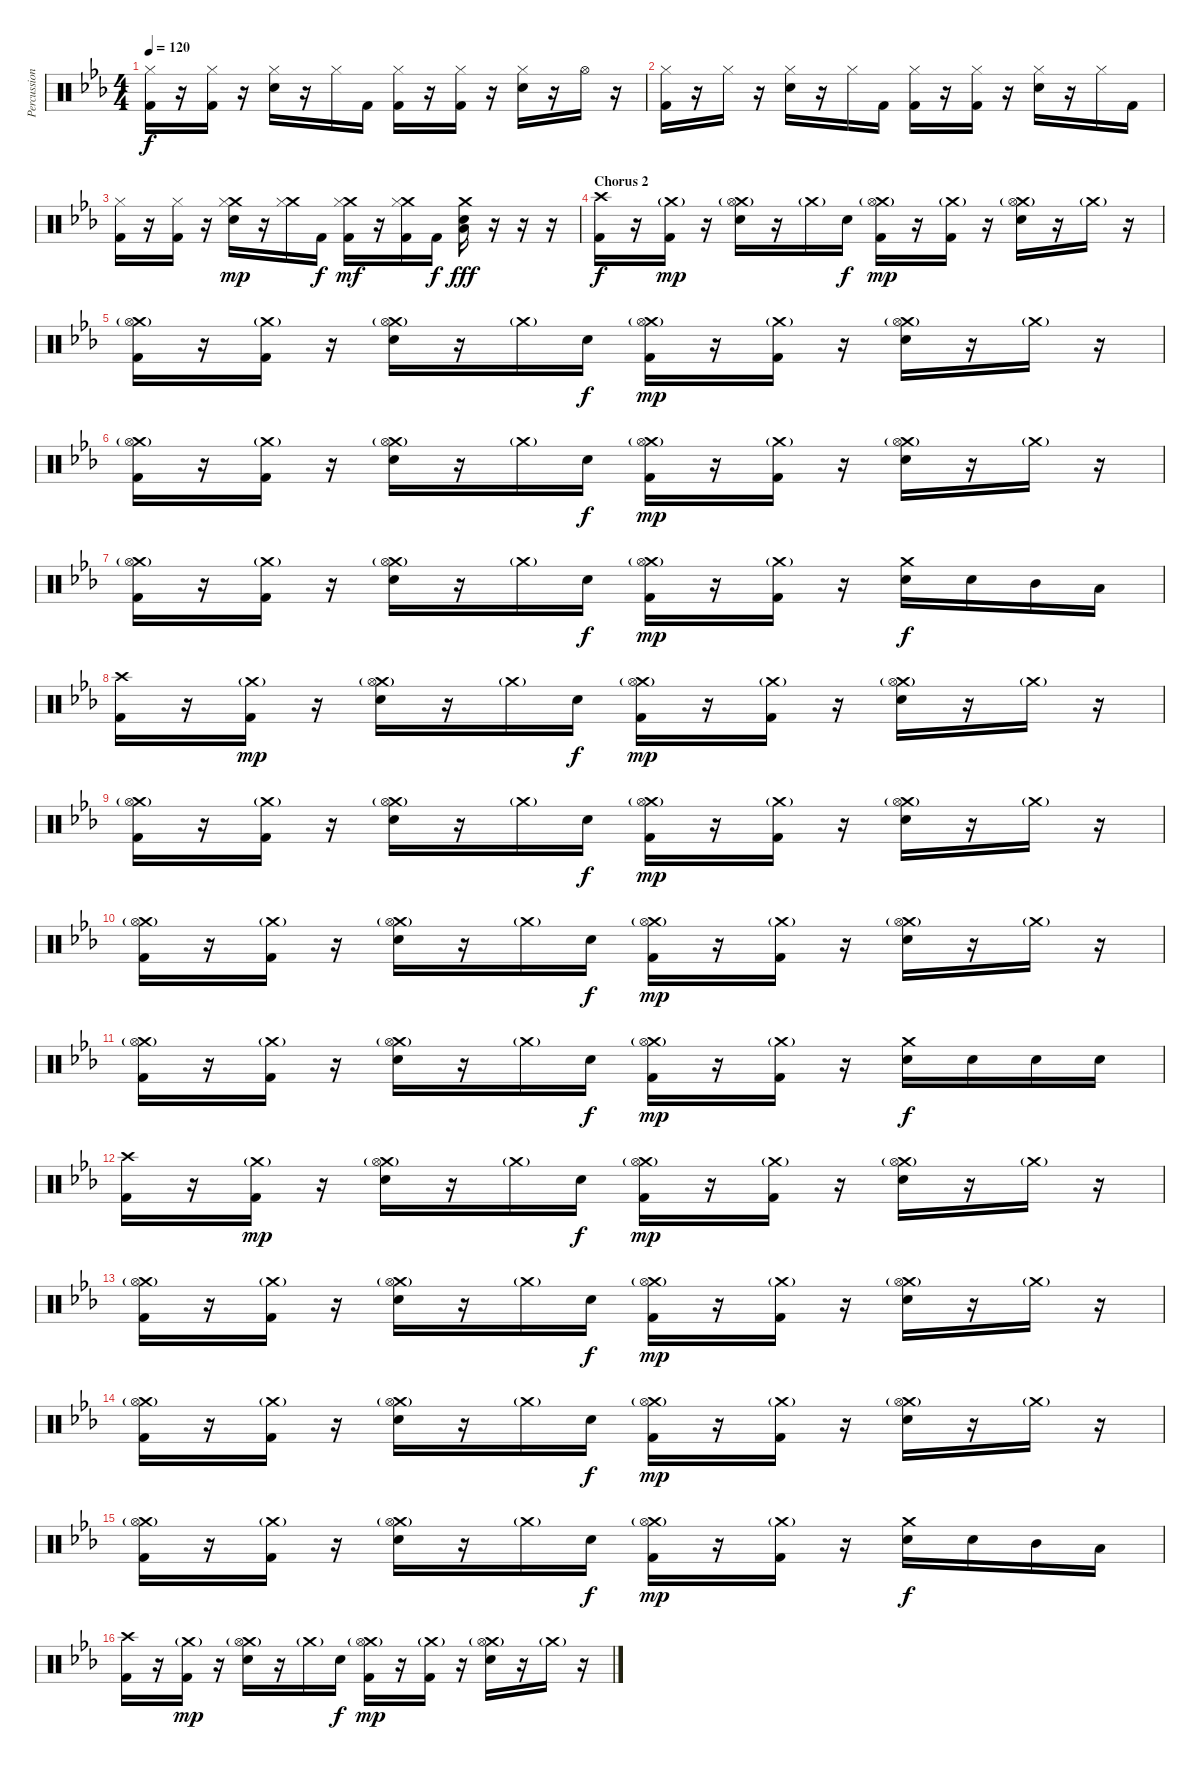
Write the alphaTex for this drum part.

\track ("Percussion" "Percussion") {instrument percussion}
\staff {score}
\articulation defaults
\ts (4 4)
\tempo 120
\clef neutral
\ks eb
("Hi-Hat (closed)" "Kick (hit) 2").16{dy f} r.16 ("Hi-Hat (closed)" "Kick (hit) 2").16 r.16 ("Hi-Hat (closed)" "Electric Snare (hit)").16 r.16 "Hi-Hat (closed)".16 "Kick (hit) 2".16 ("Hi-Hat (closed)" "Kick (hit) 2").16 r.16 ("Hi-Hat (closed)" "Kick (hit) 2").16 r.16 ("Hi-Hat (closed)" "Electric Snare (hit)").16 r.16 "Hi-Hat (open)".16 r.16 |
("Hi-Hat (closed)" "Kick (hit) 2").16 r.16 "Hi-Hat (closed)".16 r.16 ("Hi-Hat (closed)" "Electric Snare (hit)").16 r.16 "Hi-Hat (closed)".16 "Kick (hit) 2".16 ("Hi-Hat (closed)" "Kick (hit) 2").16 r.16 ("Hi-Hat (closed)" "Kick (hit) 2").16 r.16 ("Hi-Hat (closed)" "Electric Snare (hit)").16 r.16 "Hi-Hat (closed)".16 "Kick (hit) 2".16 |
("Hi-Hat (closed)" "Kick (hit) 2").16 r.16 ("Hi-Hat (closed)" "Kick (hit) 2").16 r.16 ("Crash medium (hit)" "Hi-Hat (closed)" "Electric Snare (hit)").16{dy mp} r.16 ("Crash medium (hit)" "Hi-Hat (closed)").16 "Kick (hit) 2".16{dy f} ("Crash medium (hit)" "Hi-Hat (closed)" "Kick (hit) 2").16{dy mf} r.16 ("Crash medium (hit)" "Hi-Hat (closed)" "Kick (hit) 2").16 "Kick (hit) 2".16{dy f} ("Crash medium (hit)" "Electric Snare (hit)" "Low Floor Tom (hit)").16{dy fff} r.16 r.16 r.16 |
\section ("" "Chorus 2")
("Crash high (hit)" "Kick (hit) 2").16{dy f} r.16 ("Crash medium (hit)"{g} "Kick (hit) 2").16{dy mp} r.16 ("Crash medium (hit)"{g} "Hi-Hat (open)" "Electric Snare (hit)").16 r.16 "Crash medium (hit)"{g}.16 "Electric Snare (hit)".16{dy f} ("Crash medium (hit)"{g} "Hi-Hat (open)" "Kick (hit) 2").16{dy mp} r.16 ("Crash medium (hit)"{g} "Kick (hit) 2").16 r.16 ("Crash medium (hit)"{g} "Hi-Hat (open)" "Electric Snare (hit)").16 r.16 "Crash medium (hit)"{g}.16 r.16 |
("Crash medium (hit)"{g} "Hi-Hat (open)" "Kick (hit) 2").16 r.16 ("Crash medium (hit)"{g} "Kick (hit) 2").16 r.16 ("Crash medium (hit)"{g} "Hi-Hat (open)" "Electric Snare (hit)").16 r.16 "Crash medium (hit)"{g}.16 "Electric Snare (hit)".16{dy f} ("Crash medium (hit)"{g} "Hi-Hat (open)" "Kick (hit) 2").16{dy mp} r.16 ("Crash medium (hit)"{g} "Kick (hit) 2").16 r.16 ("Crash medium (hit)"{g} "Hi-Hat (open)" "Electric Snare (hit)").16 r.16 "Crash medium (hit)"{g}.16 r.16 |
("Crash medium (hit)"{g} "Hi-Hat (open)" "Kick (hit) 2").16 r.16 ("Crash medium (hit)"{g} "Kick (hit) 2").16 r.16 ("Crash medium (hit)"{g} "Hi-Hat (open)" "Electric Snare (hit)").16 r.16 "Crash medium (hit)"{g}.16 "Electric Snare (hit)".16{dy f} ("Crash medium (hit)"{g} "Hi-Hat (open)" "Kick (hit) 2").16{dy mp} r.16 ("Crash medium (hit)"{g} "Kick (hit) 2").16 r.16 ("Crash medium (hit)"{g} "Hi-Hat (open)" "Electric Snare (hit)").16 r.16 "Crash medium (hit)"{g}.16 r.16 |
("Crash medium (hit)"{g} "Hi-Hat (open)" "Kick (hit) 2").16 r.16 ("Crash medium (hit)"{g} "Kick (hit) 2").16 r.16 ("Crash medium (hit)"{g} "Hi-Hat (open)" "Electric Snare (hit)").16 r.16 "Crash medium (hit)"{g}.16 "Electric Snare (hit)".16{dy f} ("Crash medium (hit)"{g} "Hi-Hat (open)" "Kick (hit) 2").16{dy mp} r.16 ("Crash medium (hit)"{g} "Kick (hit) 2").16 r.16 ("Crash medium (hit)" "Electric Snare (hit)").16{dy f} "Electric Snare (hit)".16 "Mid Tom (hit)".16 "Low Tom (hit)".16 |
("Crash high (hit)" "Kick (hit) 2").16 r.16 ("Crash medium (hit)"{g} "Kick (hit) 2").16{dy mp} r.16 ("Crash medium (hit)"{g} "Hi-Hat (open)" "Electric Snare (hit)").16 r.16 "Crash medium (hit)"{g}.16 "Electric Snare (hit)".16{dy f} ("Crash medium (hit)"{g} "Hi-Hat (open)" "Kick (hit) 2").16{dy mp} r.16 ("Crash medium (hit)"{g} "Kick (hit) 2").16 r.16 ("Crash medium (hit)"{g} "Hi-Hat (open)" "Electric Snare (hit)").16 r.16 "Crash medium (hit)"{g}.16 r.16 |
("Crash medium (hit)"{g} "Hi-Hat (open)" "Kick (hit) 2").16 r.16 ("Crash medium (hit)"{g} "Kick (hit) 2").16 r.16 ("Crash medium (hit)"{g} "Hi-Hat (open)" "Electric Snare (hit)").16 r.16 "Crash medium (hit)"{g}.16 "Electric Snare (hit)".16{dy f} ("Crash medium (hit)"{g} "Hi-Hat (open)" "Kick (hit) 2").16{dy mp} r.16 ("Crash medium (hit)"{g} "Kick (hit) 2").16 r.16 ("Crash medium (hit)"{g} "Hi-Hat (open)" "Electric Snare (hit)").16 r.16 "Crash medium (hit)"{g}.16 r.16 |
("Crash medium (hit)"{g} "Hi-Hat (open)" "Kick (hit) 2").16 r.16 ("Crash medium (hit)"{g} "Kick (hit) 2").16 r.16 ("Crash medium (hit)"{g} "Hi-Hat (open)" "Electric Snare (hit)").16 r.16 "Crash medium (hit)"{g}.16 "Electric Snare (hit)".16{dy f} ("Crash medium (hit)"{g} "Hi-Hat (open)" "Kick (hit) 2").16{dy mp} r.16 ("Crash medium (hit)"{g} "Kick (hit) 2").16 r.16 ("Crash medium (hit)"{g} "Hi-Hat (open)" "Electric Snare (hit)").16 r.16 "Crash medium (hit)"{g}.16 r.16 |
("Crash medium (hit)"{g} "Hi-Hat (open)" "Kick (hit) 2").16 r.16 ("Crash medium (hit)"{g} "Kick (hit) 2").16 r.16 ("Crash medium (hit)"{g} "Hi-Hat (open)" "Electric Snare (hit)").16 r.16 "Crash medium (hit)"{g}.16 "Electric Snare (hit)".16{dy f} ("Crash medium (hit)"{g} "Hi-Hat (open)" "Kick (hit) 2").16{dy mp} r.16 ("Crash medium (hit)"{g} "Kick (hit) 2").16 r.16 ("Crash medium (hit)" "Electric Snare (hit)").16{dy f} "Electric Snare (hit)".16 "Electric Snare (hit)".16 "Electric Snare (hit)".16 |
("Crash high (hit)" "Kick (hit) 2").16 r.16 ("Crash medium (hit)"{g} "Kick (hit) 2").16{dy mp} r.16 ("Crash medium (hit)"{g} "Hi-Hat (open)" "Electric Snare (hit)").16 r.16 "Crash medium (hit)"{g}.16 "Electric Snare (hit)".16{dy f} ("Crash medium (hit)"{g} "Hi-Hat (open)" "Kick (hit) 2").16{dy mp} r.16 ("Crash medium (hit)"{g} "Kick (hit) 2").16 r.16 ("Crash medium (hit)"{g} "Hi-Hat (open)" "Electric Snare (hit)").16 r.16 "Crash medium (hit)"{g}.16 r.16 |
("Crash medium (hit)"{g} "Hi-Hat (open)" "Kick (hit) 2").16 r.16 ("Crash medium (hit)"{g} "Kick (hit) 2").16 r.16 ("Crash medium (hit)"{g} "Hi-Hat (open)" "Electric Snare (hit)").16 r.16 "Crash medium (hit)"{g}.16 "Electric Snare (hit)".16{dy f} ("Crash medium (hit)"{g} "Hi-Hat (open)" "Kick (hit) 2").16{dy mp} r.16 ("Crash medium (hit)"{g} "Kick (hit) 2").16 r.16 ("Crash medium (hit)"{g} "Hi-Hat (open)" "Electric Snare (hit)").16 r.16 "Crash medium (hit)"{g}.16 r.16 |
("Crash medium (hit)"{g} "Hi-Hat (open)" "Kick (hit) 2").16 r.16 ("Crash medium (hit)"{g} "Kick (hit) 2").16 r.16 ("Crash medium (hit)"{g} "Hi-Hat (open)" "Electric Snare (hit)").16 r.16 "Crash medium (hit)"{g}.16 "Electric Snare (hit)".16{dy f} ("Crash medium (hit)"{g} "Hi-Hat (open)" "Kick (hit) 2").16{dy mp} r.16 ("Crash medium (hit)"{g} "Kick (hit) 2").16 r.16 ("Crash medium (hit)"{g} "Hi-Hat (open)" "Electric Snare (hit)").16 r.16 "Crash medium (hit)"{g}.16 r.16 |
("Crash medium (hit)"{g} "Hi-Hat (open)" "Kick (hit) 2").16 r.16 ("Crash medium (hit)"{g} "Kick (hit) 2").16 r.16 ("Crash medium (hit)"{g} "Hi-Hat (open)" "Electric Snare (hit)").16 r.16 "Crash medium (hit)"{g}.16 "Electric Snare (hit)".16{dy f} ("Crash medium (hit)"{g} "Hi-Hat (open)" "Kick (hit) 2").16{dy mp} r.16 ("Crash medium (hit)"{g} "Kick (hit) 2").16 r.16 ("Crash medium (hit)" "Electric Snare (hit)").16{dy f} "Electric Snare (hit)".16 "Mid Tom (hit)".16 "Low Tom (hit)".16 |
("Crash high (hit)" "Kick (hit) 2").16 r.16 ("Crash medium (hit)"{g} "Kick (hit) 2").16{dy mp} r.16 ("Crash medium (hit)"{g} "Hi-Hat (open)" "Electric Snare (hit)").16 r.16 "Crash medium (hit)"{g}.16 "Electric Snare (hit)".16{dy f} ("Crash medium (hit)"{g} "Hi-Hat (open)" "Kick (hit) 2").16{dy mp} r.16 ("Crash medium (hit)"{g} "Kick (hit) 2").16 r.16 ("Crash medium (hit)"{g} "Hi-Hat (open)" "Electric Snare (hit)").16 r.16 "Crash medium (hit)"{g}.16 r.16
